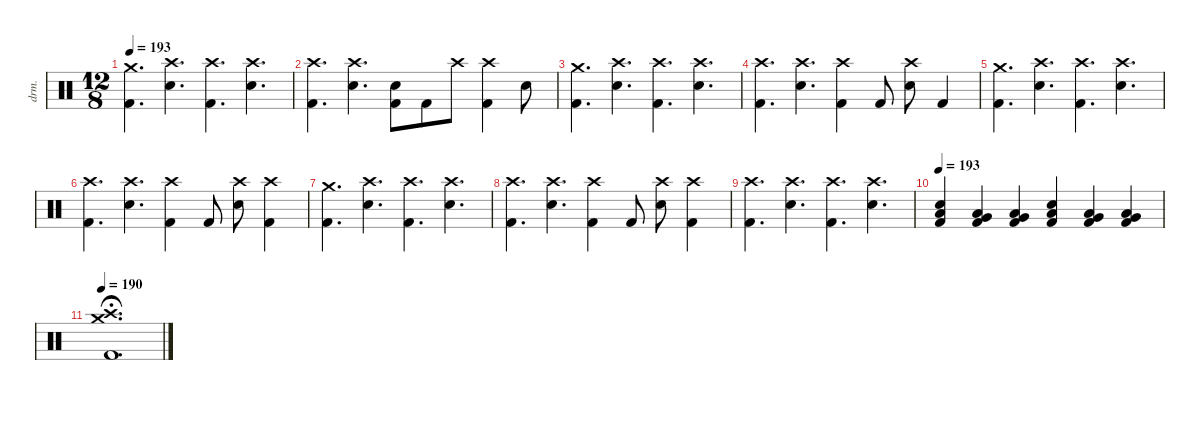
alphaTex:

\defaultSystemsLayout 4
\hideDynamics
\bracketExtendMode nobrackets
\otherSystemsTrackNameOrientation horizontal
\track ("Drums" "drm.") {defaultSystemsLayout 4 instrument percussion}
\staff {score}
\articulation defaults
\ts (12 8)
\tempo 193
\clef neutral
\ks c
("Crash medium (hit)" "Kick (hit) 2").4{d dy f beam Down} ("Crash high (hit)" "Snare (hit) 2").4{d beam Down} ("Crash high (hit)" "Kick (hit) 2").4{d beam Down} ("Crash high (hit)" "Snare (hit) 2").4{d beam Down} |
("Crash high (hit)" "Kick (hit) 2").4{d beam Down} ("Crash high (hit)" "Snare (hit) 2").4{d beam Down} ("Snare (hit) 2" "Kick (hit) 2").8{beam Down} "Kick (hit) 2".8{beam Down} "Crash high (hit)".8{beam Down} ("Crash high (hit)" "Kick (hit) 2").4{beam Down} "Snare (hit) 2".8{beam Down} |
("Crash medium (hit)" "Kick (hit) 2").4{d beam Down} ("Crash high (hit)" "Snare (hit) 2").4{d beam Down} ("Crash high (hit)" "Kick (hit) 2").4{d beam Down} ("Crash high (hit)" "Snare (hit) 2").4{d beam Down} |
("Crash high (hit)" "Kick (hit) 2").4{d beam Down} ("Crash high (hit)" "Snare (hit) 2").4{d beam Down} ("Crash high (hit)" "Kick (hit) 2").4{beam Down} "Kick (hit) 2".8{beam Up} ("Crash high (hit)" "Snare (hit) 2").8{beam Down} "Kick (hit) 2".4{beam Up} |
("Crash medium (hit)" "Kick (hit) 2").4{d beam Down} ("Crash high (hit)" "Snare (hit) 2").4{d beam Down} ("Crash high (hit)" "Kick (hit) 2").4{d beam Down} ("Crash high (hit)" "Snare (hit) 2").4{d beam Down} |
("Crash high (hit)" "Kick (hit) 2").4{d beam Down} ("Crash high (hit)" "Snare (hit) 2").4{d beam Down} ("Crash high (hit)" "Kick (hit) 2").4{beam Down} "Kick (hit) 2".8{beam Up} ("Crash high (hit)" "Snare (hit) 2").8{beam Down} ("Crash high (hit)" "Kick (hit) 2").4{beam Down} |
("Crash medium (hit)" "Kick (hit) 2").4{d beam Down} ("Crash high (hit)" "Snare (hit) 2").4{d beam Down} ("Crash high (hit)" "Kick (hit) 2").4{d beam Down} ("Crash high (hit)" "Snare (hit) 2").4{d beam Down} |
("Crash high (hit)" "Kick (hit) 2").4{d beam Down} ("Crash high (hit)" "Snare (hit) 2").4{d beam Down} ("Crash high (hit)" "Kick (hit) 2").4{beam Down} "Kick (hit) 2".8{beam Up} ("Crash high (hit)" "Snare (hit) 2").8{beam Down} ("Crash high (hit)" "Kick (hit) 2").4{beam Down} |
("Crash high (hit)" "Kick (hit) 2").4{d beam Down} ("Crash high (hit)" "Snare (hit) 2").4{d beam Down} ("Crash high (hit)" "Kick (hit) 2").4{d beam Down} ("Crash high (hit)" "Snare (hit) 2").4{d beam Down} |
\tempo 193
("Low Tom (hit)" "Snare (hit) 2" "Kick (hit) 2").4{beam Up} ("Low Tom (hit)" "Very Low Tom (hit)" "Kick (hit) 2").4{beam Up} ("Very Low Tom (hit)" "Low Floor Tom (hit)" "Kick (hit) 2").4{beam Up} ("Low Tom (hit)" "Snare (hit) 2" "Kick (hit) 2").4{beam Up} ("Low Tom (hit)" "Very Low Tom (hit)" "Kick (hit) 2").4{beam Up} ("Very Low Tom (hit)" "Low Floor Tom (hit)" "Kick (hit) 2").4{beam Up} |
\tempo 190
("Crash medium (hit)" "Crash high (hit)" "Kick (hit) 2").1{d fermata (medium 1) beam Down}
